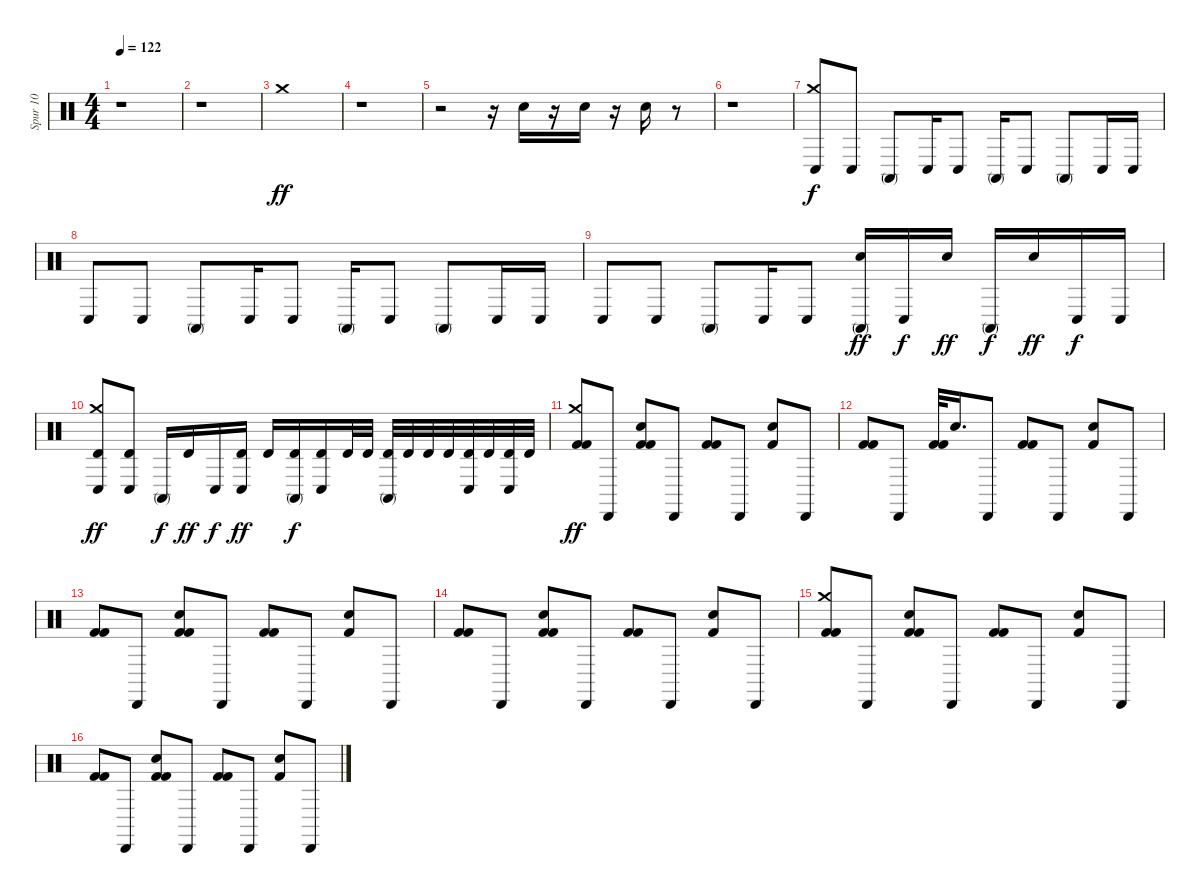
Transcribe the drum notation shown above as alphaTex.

\track ("Spur 10" "Spur 10") {instrument percussion}
\staff {score}
\articulation defaults
\ts (4 4)
\tempo 122
\clef neutral
\ks c
r.1{dy ff} |
r.1 |
"Crash medium (hit)".1 |
r.1 |
r.2 r.16 "Snare (hit) 2".16 r.16 "Snare (hit) 2".16 r.16 "Snare (hit) 2".16 r.8 |
r.1 |
("Conga low (hit)" "Crash medium (hit)").8{dy f} "Conga low (hit)".8 "Conga high (mute)".8 "Conga low (hit)".16 "Conga low (hit)".8 "Conga high (mute)".16 "Conga low (hit)".8 "Conga high (mute)".8 "Conga low (hit)".16 "Conga low (hit)".16 |
"Conga low (hit)".8 "Conga low (hit)".8 "Conga high (mute)".8 "Conga low (hit)".16 "Conga low (hit)".8 "Conga high (mute)".16 "Conga low (hit)".8 "Conga high (mute)".8 "Conga low (hit)".16 "Conga low (hit)".16 |
"Conga low (hit)".8 "Conga low (hit)".8 "Conga high (mute)".8 "Conga low (hit)".16 "Conga low (hit)".8 ("Conga high (mute)" "Snare (hit) 2").16{dy ff} "Conga low (hit)".16{dy f} "Snare (hit) 2".16{dy ff} "Conga high (mute)".16{dy f} "Snare (hit) 2".16{dy ff} "Conga low (hit)".16{dy f} "Conga low (hit)".16 |
("Conga low (hit)" "Crash medium (hit)" "Timbale high (hit)").8{dy ff} ("Conga low (hit)" "Timbale high (hit)").8 "Conga high (mute)".16{dy f} "Timbale high (hit)".16{dy ff} "Conga low (hit)".16{dy f} ("Conga low (hit)" "Timbale high (hit)").16{dy ff} "Timbale high (hit)".16 ("Conga high (mute)" "Timbale high (hit)").16{dy f} ("Timbale high (hit)" "Conga low (hit)").16 "Timbale high (hit)".32 "Timbale high (hit)".32 ("Conga high (mute)" "Timbale high (hit)").32 "Timbale high (hit)".32 "Timbale high (hit)".32 "Timbale high (hit)".32 ("Conga low (hit)" "Timbale high (hit)").32 "Timbale high (hit)".32 ("Conga low (hit)" "Timbale high (hit)").32 "Timbale high (hit)".32 |
("Kick (hit) 2" "Kick (hit) 2" "Crash medium (hit)").8{dy ff} "Cabasa (hit)".8 ("Kick (hit) 2" "Kick (hit) 2" "Hand Clap (hit)").8 "Cabasa (hit)".8 ("Kick (hit) 2" "Kick (hit) 2").8 "Cabasa (hit)".8 ("Hand Clap (hit)" "Kick (hit) 2").8 "Cabasa (hit)".8 |
("Kick (hit) 2" "Kick (hit) 2").8 "Cabasa (hit)".8 ("Kick (hit) 2" "Kick (hit) 2").32 "Hand Clap (hit)".16{d} "Cabasa (hit)".8 ("Kick (hit) 2" "Kick (hit) 2").8 "Cabasa (hit)".8 ("Hand Clap (hit)" "Kick (hit) 2").8 "Cabasa (hit)".8 |
("Kick (hit) 2" "Kick (hit) 2").8 "Cabasa (hit)".8 ("Kick (hit) 2" "Kick (hit) 2" "Hand Clap (hit)").8 "Cabasa (hit)".8 ("Kick (hit) 2" "Kick (hit) 2").8 "Cabasa (hit)".8 ("Hand Clap (hit)" "Kick (hit) 2").8 "Cabasa (hit)".8 |
("Kick (hit) 2" "Kick (hit) 2").8 "Cabasa (hit)".8 ("Kick (hit) 2" "Kick (hit) 2" "Hand Clap (hit)").8 "Cabasa (hit)".8 ("Kick (hit) 2" "Kick (hit) 2").8 "Cabasa (hit)".8 ("Hand Clap (hit)" "Kick (hit) 2").8 "Cabasa (hit)".8 |
("Kick (hit) 2" "Kick (hit) 2" "Crash medium (hit)").8 "Cabasa (hit)".8 ("Kick (hit) 2" "Kick (hit) 2" "Hand Clap (hit)").8 "Cabasa (hit)".8 ("Kick (hit) 2" "Kick (hit) 2").8 "Cabasa (hit)".8 ("Hand Clap (hit)" "Kick (hit) 2").8 "Cabasa (hit)".8 |
("Kick (hit) 2" "Kick (hit) 2").8 "Cabasa (hit)".8 ("Kick (hit) 2" "Kick (hit) 2" "Hand Clap (hit)").8 "Cabasa (hit)".8 ("Kick (hit) 2" "Kick (hit) 2").8 "Cabasa (hit)".8 ("Hand Clap (hit)" "Kick (hit) 2").8 "Cabasa (hit)".8
